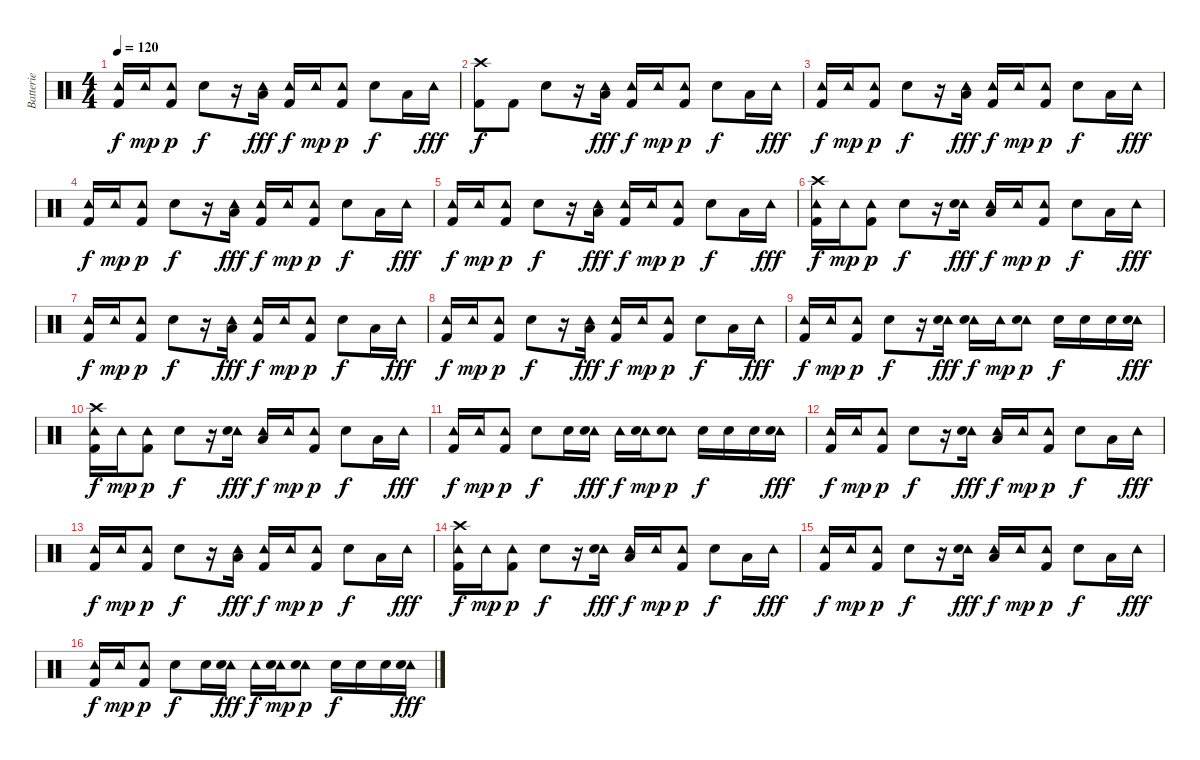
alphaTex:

\track ("Batterie" "Batterie") {instrument percussion}
\staff {score}
\articulation defaults
\ts (4 4)
\tempo 120
\clef neutral
\ks c
("Tambourine (hit)" "Kick (hit) 2").16{dy f} "Tambourine (hit)".16{dy mp} ("Tambourine (hit)" "Kick (hit) 2").8{dy p} "Electric Snare (hit)".8{dy f} r.16 ("Tambourine (hit)" "Low Tom (hit)").16{dy fff} ("Tambourine (hit)" "Kick (hit) 2").16{dy f} "Tambourine (hit)".16{dy mp} ("Tambourine (hit)" "Kick (hit) 2").8{dy p} "Electric Snare (hit)".8{dy f} "Low Tom (hit)".16 "Tambourine (hit)".16{dy fff} |
("Crash high (hit)" "Kick (hit) 2").8{dy f} "Kick (hit) 2".8 "Electric Snare (hit)".8 r.16 ("Tambourine (hit)" "Low Tom (hit)").16{dy fff} ("Tambourine (hit)" "Kick (hit) 2").16{dy f} "Tambourine (hit)".16{dy mp} ("Tambourine (hit)" "Kick (hit) 2").8{dy p} "Electric Snare (hit)".8{dy f} "Low Tom (hit)".16 "Tambourine (hit)".16{dy fff} |
("Tambourine (hit)" "Kick (hit) 2").16{dy f} "Tambourine (hit)".16{dy mp} ("Tambourine (hit)" "Kick (hit) 2").8{dy p} "Electric Snare (hit)".8{dy f} r.16 ("Tambourine (hit)" "Low Tom (hit)").16{dy fff} ("Tambourine (hit)" "Kick (hit) 2").16{dy f} "Tambourine (hit)".16{dy mp} ("Tambourine (hit)" "Kick (hit) 2").8{dy p} "Electric Snare (hit)".8{dy f} "Low Tom (hit)".16 "Tambourine (hit)".16{dy fff} |
("Tambourine (hit)" "Kick (hit) 2").16{dy f} "Tambourine (hit)".16{dy mp} ("Tambourine (hit)" "Kick (hit) 2").8{dy p} "Electric Snare (hit)".8{dy f} r.16 ("Tambourine (hit)" "Low Tom (hit)").16{dy fff} ("Tambourine (hit)" "Kick (hit) 2").16{dy f} "Tambourine (hit)".16{dy mp} ("Tambourine (hit)" "Kick (hit) 2").8{dy p} "Electric Snare (hit)".8{dy f} "Low Tom (hit)".16 "Tambourine (hit)".16{dy fff} |
("Tambourine (hit)" "Kick (hit) 2").16{dy f} "Tambourine (hit)".16{dy mp} ("Tambourine (hit)" "Kick (hit) 2").8{dy p} "Electric Snare (hit)".8{dy f} r.16 ("Tambourine (hit)" "Low Tom (hit)").16{dy fff} ("Tambourine (hit)" "Kick (hit) 2").16{dy f} "Tambourine (hit)".16{dy mp} ("Tambourine (hit)" "Kick (hit) 2").8{dy p} "Electric Snare (hit)".8{dy f} "Low Tom (hit)".16 "Tambourine (hit)".16{dy fff} |
("Tambourine (hit)" "Kick (hit) 2" "Crash high (hit)").16{dy f} "Tambourine (hit)".16{dy mp} ("Tambourine (hit)" "Kick (hit) 2").8{dy p} "Electric Snare (hit)".8{dy f} r.16 ("Tambourine (hit)" "Electric Snare (hit)").16{dy fff} ("Tambourine (hit)" "Low Tom (hit)").16{dy f} "Tambourine (hit)".16{dy mp} ("Tambourine (hit)" "Kick (hit) 2").8{dy p} "Electric Snare (hit)".8{dy f} "Low Tom (hit)".16 "Tambourine (hit)".16{dy fff} |
("Tambourine (hit)" "Kick (hit) 2").16{dy f} "Tambourine (hit)".16{dy mp} ("Tambourine (hit)" "Kick (hit) 2").8{dy p} "Electric Snare (hit)".8{dy f} r.16 ("Tambourine (hit)" "Low Tom (hit)").16{dy fff} ("Tambourine (hit)" "Kick (hit) 2").16{dy f} "Tambourine (hit)".16{dy mp} ("Tambourine (hit)" "Kick (hit) 2").8{dy p} "Electric Snare (hit)".8{dy f} "Low Tom (hit)".16 "Tambourine (hit)".16{dy fff} |
("Tambourine (hit)" "Kick (hit) 2").16{dy f} "Tambourine (hit)".16{dy mp} ("Tambourine (hit)" "Kick (hit) 2").8{dy p} "Electric Snare (hit)".8{dy f} r.16 ("Tambourine (hit)" "Low Tom (hit)").16{dy fff} ("Tambourine (hit)" "Kick (hit) 2").16{dy f} "Tambourine (hit)".16{dy mp} ("Tambourine (hit)" "Kick (hit) 2").8{dy p} "Electric Snare (hit)".8{dy f} "Low Tom (hit)".16 "Tambourine (hit)".16{dy fff} |
("Tambourine (hit)" "Kick (hit) 2").16{dy f} "Tambourine (hit)".16{dy mp} ("Tambourine (hit)" "Kick (hit) 2").8{dy p} "Electric Snare (hit)".8{dy f} r.16 ("Tambourine (hit)" "Electric Snare (hit)").16{dy fff} ("Tambourine (hit)" "Electric Snare (hit)").16{dy f} "Tambourine (hit)".16{dy mp} ("Tambourine (hit)" "Electric Snare (hit)").8{dy p} "Electric Snare (hit)".16{dy f} "Electric Snare (hit)".16 "Electric Snare (hit)".16 ("Tambourine (hit)" "Electric Snare (hit)").16{dy fff} |
("Tambourine (hit)" "Kick (hit) 2" "Crash high (hit)").16{dy f} "Tambourine (hit)".16{dy mp} ("Tambourine (hit)" "Kick (hit) 2").8{dy p} "Electric Snare (hit)".8{dy f} r.16 ("Tambourine (hit)" "Electric Snare (hit)").16{dy fff} ("Tambourine (hit)" "Low Tom (hit)").16{dy f} "Tambourine (hit)".16{dy mp} ("Tambourine (hit)" "Kick (hit) 2").8{dy p} "Electric Snare (hit)".8{dy f} "Low Tom (hit)".16 "Tambourine (hit)".16{dy fff} |
("Tambourine (hit)" "Kick (hit) 2").16{dy f} "Tambourine (hit)".16{dy mp} ("Tambourine (hit)" "Kick (hit) 2").8{dy p} "Electric Snare (hit)".8{dy f} "Electric Snare (hit)".16 ("Tambourine (hit)" "Electric Snare (hit)").16{dy fff} "Tambourine (hit)".16{dy f} ("Tambourine (hit)" "Electric Snare (hit)").16{dy mp} ("Tambourine (hit)" "Electric Snare (hit)").8{dy p} "Electric Snare (hit)".16{dy f} "Electric Snare (hit)".16 "Electric Snare (hit)".16 ("Tambourine (hit)" "Electric Snare (hit)").16{dy fff} |
("Tambourine (hit)" "Kick (hit) 2").16{dy f} "Tambourine (hit)".16{dy mp} ("Tambourine (hit)" "Kick (hit) 2").8{dy p} "Electric Snare (hit)".8{dy f} r.16 ("Tambourine (hit)" "Electric Snare (hit)").16{dy fff} ("Tambourine (hit)" "Low Tom (hit)").16{dy f} "Tambourine (hit)".16{dy mp} ("Tambourine (hit)" "Kick (hit) 2").8{dy p} "Electric Snare (hit)".8{dy f} "Low Tom (hit)".16 "Tambourine (hit)".16{dy fff} |
("Tambourine (hit)" "Kick (hit) 2").16{dy f} "Tambourine (hit)".16{dy mp} ("Tambourine (hit)" "Kick (hit) 2").8{dy p} "Electric Snare (hit)".8{dy f} r.16 ("Tambourine (hit)" "Low Tom (hit)").16{dy fff} ("Tambourine (hit)" "Kick (hit) 2").16{dy f} "Tambourine (hit)".16{dy mp} ("Tambourine (hit)" "Kick (hit) 2").8{dy p} "Electric Snare (hit)".8{dy f} "Low Tom (hit)".16 "Tambourine (hit)".16{dy fff} |
("Tambourine (hit)" "Kick (hit) 2" "Crash high (hit)").16{dy f} "Tambourine (hit)".16{dy mp} ("Tambourine (hit)" "Kick (hit) 2").8{dy p} "Electric Snare (hit)".8{dy f} r.16 ("Tambourine (hit)" "Electric Snare (hit)").16{dy fff} ("Tambourine (hit)" "Low Tom (hit)").16{dy f} "Tambourine (hit)".16{dy mp} ("Tambourine (hit)" "Kick (hit) 2").8{dy p} "Electric Snare (hit)".8{dy f} "Low Tom (hit)".16 "Tambourine (hit)".16{dy fff} |
("Tambourine (hit)" "Kick (hit) 2").16{dy f} "Tambourine (hit)".16{dy mp} ("Tambourine (hit)" "Kick (hit) 2").8{dy p} "Electric Snare (hit)".8{dy f} r.16 ("Tambourine (hit)" "Electric Snare (hit)").16{dy fff} ("Tambourine (hit)" "Low Tom (hit)").16{dy f} "Tambourine (hit)".16{dy mp} ("Tambourine (hit)" "Kick (hit) 2").8{dy p} "Electric Snare (hit)".8{dy f} "Low Tom (hit)".16 "Tambourine (hit)".16{dy fff} |
("Tambourine (hit)" "Kick (hit) 2").16{dy f} "Tambourine (hit)".16{dy mp} ("Tambourine (hit)" "Kick (hit) 2").8{dy p} "Electric Snare (hit)".8{dy f} "Electric Snare (hit)".16 ("Tambourine (hit)" "Electric Snare (hit)").16{dy fff} "Tambourine (hit)".16{dy f} ("Tambourine (hit)" "Electric Snare (hit)").16{dy mp} ("Tambourine (hit)" "Electric Snare (hit)").8{dy p} "Electric Snare (hit)".16{dy f} "Electric Snare (hit)".16 "Electric Snare (hit)".16 ("Tambourine (hit)" "Electric Snare (hit)").16{dy fff}
